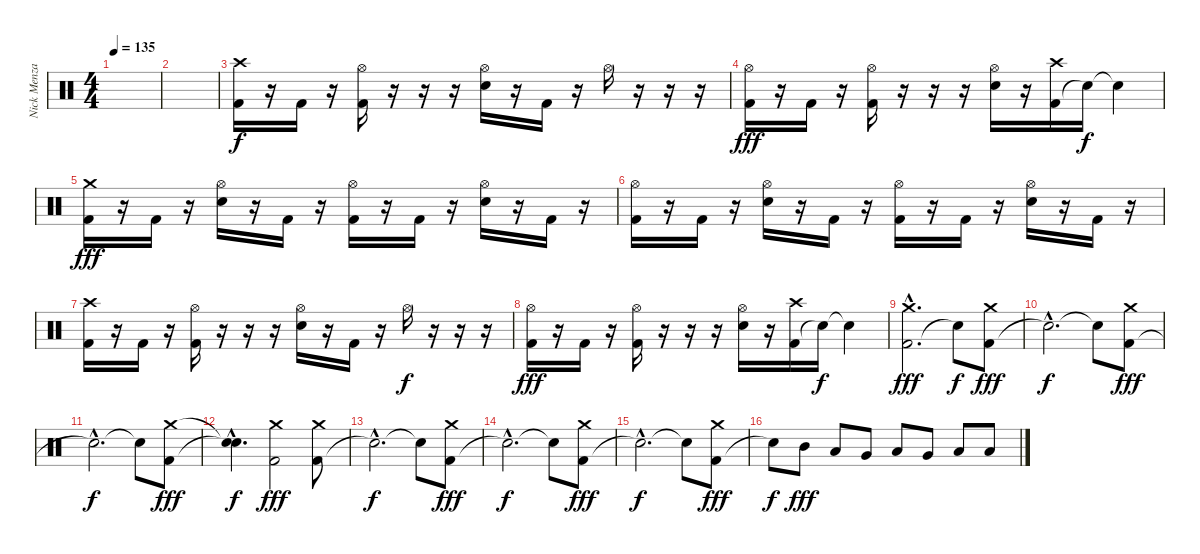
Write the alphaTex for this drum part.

\track ("Nick Menza" "Nick Menza") {instrument percussion}
\staff {score}
\articulation defaults
\ts (4 4)
\tempo 135
\clef neutral
\ks c
|
|
("Kick (hit) 2" "Crash high (hit)").16 r.16 "Kick (hit) 2".16 r.16 ("Kick (hit) 2" "Hi-Hat (open)").16 r.16 r.16 r.16 ("Electric Snare (hit)" "Hi-Hat (open)").16 r.16 "Kick (hit) 2".16 r.16 "Hi-Hat (open)".16{dy f} r.16 r.16 r.16 |
("Kick (hit) 2" "Hi-Hat (open)").16{dy fff} r.16 "Kick (hit) 2".16 r.16 ("Kick (hit) 2" "Hi-Hat (open)").16 r.16 r.16 r.16 ("Electric Snare (hit)" "Hi-Hat (open)").16 r.16 ("Kick (hit) 2" "Crash high (hit)").16 "Snare (hit)"{t}.16{dy f} "Snare (hit)"{t}.4 |
("Kick (hit) 2" "Crash medium (hit)").16{dy fff} r.16 "Kick (hit) 2".16 r.16 ("Electric Snare (hit)" "Hi-Hat (open)").16 r.16 "Kick (hit) 2".16 r.16 ("Kick (hit) 2" "Hi-Hat (open)").16 r.16 "Kick (hit) 2".16 r.16 ("Electric Snare (hit)" "Hi-Hat (open)").16 r.16 "Kick (hit) 2".16 r.16 |
("Kick (hit) 2" "Hi-Hat (open)").16 r.16 "Kick (hit) 2".16 r.16 ("Electric Snare (hit)" "Hi-Hat (open)").16 r.16 "Kick (hit) 2".16 r.16 ("Kick (hit) 2" "Hi-Hat (open)").16 r.16 "Kick (hit) 2".16 r.16 ("Electric Snare (hit)" "Hi-Hat (open)").16 r.16 "Kick (hit) 2".16 r.16 |
("Kick (hit) 2" "Crash high (hit)").16 r.16 "Kick (hit) 2".16 r.16 ("Kick (hit) 2" "Hi-Hat (open)").16 r.16 r.16 r.16 ("Electric Snare (hit)" "Hi-Hat (open)").16 r.16 "Kick (hit) 2".16 r.16 "Hi-Hat (open)".16{dy f} r.16 r.16 r.16 |
("Kick (hit) 2" "Hi-Hat (open)").16{dy fff} r.16 "Kick (hit) 2".16 r.16 ("Kick (hit) 2" "Hi-Hat (open)").16 r.16 r.16 r.16 ("Electric Snare (hit)" "Hi-Hat (open)").16 r.16 ("Kick (hit) 2" "Crash high (hit)").16 "Snare (hit)"{t}.16{dy f} "Snare (hit)"{t}.4 |
("Kick (hit) 2"{hac} "Crash medium (hit)"{hac}).2{d dy fff} "Snare (hit)"{t}.8{dy f} ("Kick (hit) 2" "Crash medium (hit)").8{dy fff} |
"Snare (hit)"{hac t}.2{d dy f} "Snare (hit)"{t}.8 ("Kick (hit) 2" "Crash medium (hit)").8{dy fff} |
"Snare (hit)"{hac t}.2{d dy f} "Snare (hit)"{t}.8 ("Kick (hit) 2" "Crash medium (hit)").8{dy fff} |
("Snare (hit)"{hac t} "Snare (hit)"{hac t}).4{d dy f} ("Kick (hit) 2" "Crash medium (hit)").2{dy fff} ("Kick (hit) 2" "Crash medium (hit)").8 |
"Snare (hit)"{hac t}.2{d dy f} "Snare (hit)"{t}.8 ("Kick (hit) 2" "Crash medium (hit)").8{dy fff} |
"Snare (hit)"{hac t}.2{d dy f} "Snare (hit)"{t}.8 ("Kick (hit) 2" "Crash medium (hit)").8{dy fff} |
"Snare (hit)"{hac t}.2{d dy f} "Snare (hit)"{t}.8 ("Kick (hit) 2" "Crash medium (hit)").8{dy fff} |
"Snare (hit)"{t}.8{dy f} "Mid Tom (hit)".8{dy fff} "Low Tom (hit)".8 "Very Low Tom (hit)".8 "Low Tom (hit)".8 "Very Low Tom (hit)".8 "Low Floor Tom (hit)".8 "Low Floor Tom (hit)".8
